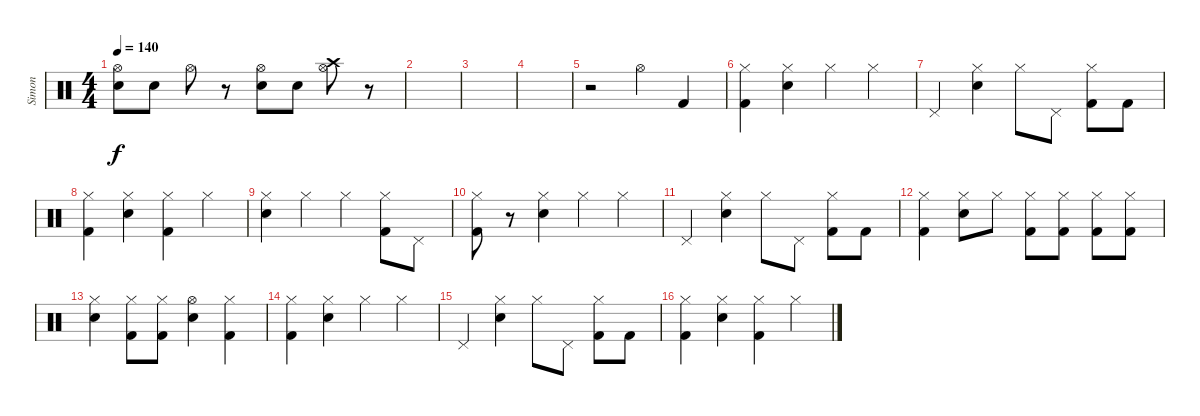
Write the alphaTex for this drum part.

\track ("Simon" "Simon") {instrument percussion}
\staff {score}
\articulation defaults
\ts (4 4)
\tempo 140
\clef neutral
\ks c
("Electric Snare (hit)" "Hi-Hat (open)").8{dy f} "Electric Snare (hit)".8 "Hi-Hat (open)".8 r.8 ("Electric Snare (hit)" "Hi-Hat (open)").8 "Electric Snare (hit)".8 ("Crash high (hit)" "Hi-Hat (open)").8 r.8 |
|
|
|
r.2 "Hi-Hat (open)".4 "Kick (hit) 2".4 |
("Kick (hit) 2" "Hi-Hat (closed)").4 ("Electric Snare (hit)" "Hi-Hat (closed)").4 "Hi-Hat (closed)".4 "Hi-Hat (closed)".4 |
"Pedal Hi-Hat (hit)".4 ("Electric Snare (hit)" "Hi-Hat (closed)").4 "Hi-Hat (closed)".8 "Pedal Hi-Hat (hit)".8 ("Kick (hit) 2" "Hi-Hat (closed)").8 "Kick (hit) 2".8 |
("Kick (hit) 2" "Hi-Hat (closed)").4 ("Electric Snare (hit)" "Hi-Hat (closed)").4 ("Kick (hit) 2" "Hi-Hat (closed)").4 "Hi-Hat (closed)".4 |
("Electric Snare (hit)" "Hi-Hat (closed)").4 "Hi-Hat (closed)".4 "Hi-Hat (closed)".4 ("Kick (hit) 2" "Hi-Hat (closed)").8 "Pedal Hi-Hat (hit)".8 |
("Kick (hit) 2" "Hi-Hat (closed)").8 r.8 ("Electric Snare (hit)" "Hi-Hat (closed)").4 "Hi-Hat (closed)".4 "Hi-Hat (closed)".4 |
"Pedal Hi-Hat (hit)".4 ("Electric Snare (hit)" "Hi-Hat (closed)").4 "Hi-Hat (closed)".8 "Pedal Hi-Hat (hit)".8 ("Kick (hit) 2" "Hi-Hat (closed)").8 "Kick (hit) 2".8 |
("Kick (hit) 2" "Hi-Hat (closed)").4 ("Electric Snare (hit)" "Hi-Hat (closed)").8 "Hi-Hat (closed)".8 ("Kick (hit) 2" "Hi-Hat (closed)").8 ("Kick (hit) 2" "Hi-Hat (closed)").8 ("Kick (hit) 2" "Hi-Hat (closed)").8 ("Kick (hit) 2" "Hi-Hat (closed)").8 |
("Electric Snare (hit)" "Hi-Hat (closed)").4 ("Kick (hit) 2" "Hi-Hat (closed)").8 ("Kick (hit) 2" "Hi-Hat (closed)").8 ("Electric Snare (hit)" "Hi-Hat (open)").4 ("Kick (hit) 2" "Hi-Hat (closed)").4 |
("Kick (hit) 2" "Hi-Hat (closed)").4 ("Electric Snare (hit)" "Hi-Hat (closed)").4 "Hi-Hat (closed)".4 "Hi-Hat (closed)".4 |
"Pedal Hi-Hat (hit)".4 ("Electric Snare (hit)" "Hi-Hat (closed)").4 "Hi-Hat (closed)".8 "Pedal Hi-Hat (hit)".8 ("Kick (hit) 2" "Hi-Hat (closed)").8 "Kick (hit) 2".8 |
("Kick (hit) 2" "Hi-Hat (closed)").4 ("Electric Snare (hit)" "Hi-Hat (closed)").4 ("Kick (hit) 2" "Hi-Hat (closed)").4 "Hi-Hat (closed)".4
